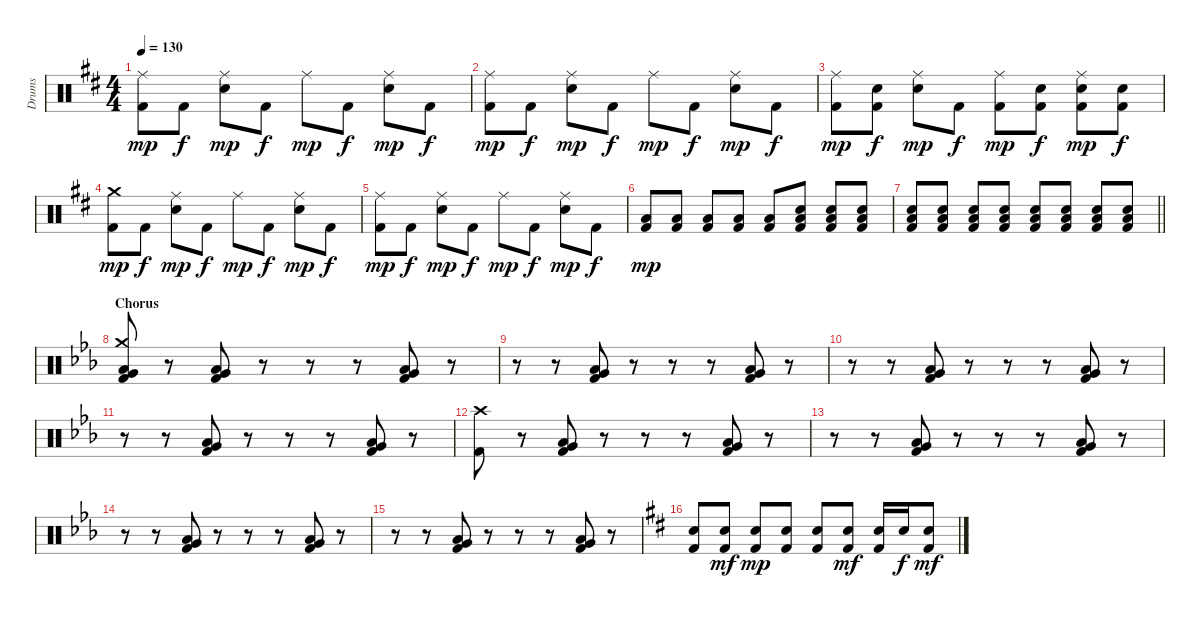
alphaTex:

\track ("Drums" "Drums") {instrument percussion}
\staff {score}
\articulation defaults
\ts (4 4)
\tempo 130
\clef neutral
\ks d
("Ride (middle)" "Kick (hit) 2").8{dy mp} "Kick (hit) 2".8{dy f} ("Ride (middle)" "Electric Snare (hit)").8{dy mp} "Kick (hit) 2".8{dy f} "Ride (middle)".8{dy mp} "Kick (hit) 2".8{dy f} ("Ride (middle)" "Electric Snare (hit)").8{dy mp} "Kick (hit) 2".8{dy f} |
("Ride (middle)" "Kick (hit) 2").8{dy mp} "Kick (hit) 2".8{dy f} ("Ride (middle)" "Electric Snare (hit)").8{dy mp} "Kick (hit) 2".8{dy f} "Ride (middle)".8{dy mp} "Kick (hit) 2".8{dy f} ("Ride (middle)" "Electric Snare (hit)").8{dy mp} "Kick (hit) 2".8{dy f} |
("Ride (middle)" "Kick (hit) 2").8{dy mp} ("Electric Snare (hit)" "Kick (hit) 2").8{dy f} ("Ride (middle)" "Electric Snare (hit)").8{dy mp} "Kick (hit) 2".8{dy f} ("Ride (middle)" "Kick (hit) 2").8{dy mp} ("Electric Snare (hit)" "Kick (hit) 2").8{dy f} ("Ride (middle)" "Electric Snare (hit)" "Kick (hit) 2").8{dy mp} ("Electric Snare (hit)" "Kick (hit) 2").8{dy f} |
("Crash medium (hit)" "Kick (hit) 2").8{dy mp} "Kick (hit) 2".8{dy f} ("Ride (middle)" "Electric Snare (hit)").8{dy mp} "Kick (hit) 2".8{dy f} "Ride (middle)".8{dy mp} "Kick (hit) 2".8{dy f} ("Ride (middle)" "Electric Snare (hit)").8{dy mp} "Kick (hit) 2".8{dy f} |
("Ride (middle)" "Kick (hit) 2").8{dy mp} "Kick (hit) 2".8{dy f} ("Ride (middle)" "Electric Snare (hit)").8{dy mp} "Kick (hit) 2".8{dy f} "Ride (middle)".8{dy mp} "Kick (hit) 2".8{dy f} ("Ride (middle)" "Electric Snare (hit)").8{dy mp} "Kick (hit) 2".8{dy f} |
("Low Tom (hit)" "Kick (hit) 2").8{dy mp} ("Low Tom (hit)" "Kick (hit) 2").8 ("Low Tom (hit)" "Kick (hit) 2").8 ("Low Tom (hit)" "Kick (hit) 2").8 ("Low Tom (hit)" "Kick (hit) 2").8 ("Electric Snare (hit)" "Low Tom (hit)" "Kick (hit) 2").8 ("Electric Snare (hit)" "Low Tom (hit)" "Kick (hit) 2").8 ("Electric Snare (hit)" "Low Tom (hit)" "Kick (hit) 2").8 |
\barLineRight lightlight
("Electric Snare (hit)" "Low Tom (hit)" "Kick (hit) 2").8 ("Electric Snare (hit)" "Low Tom (hit)" "Kick (hit) 2").8 ("Electric Snare (hit)" "Low Tom (hit)" "Kick (hit) 2").8 ("Electric Snare (hit)" "Low Tom (hit)" "Kick (hit) 2").8 ("Electric Snare (hit)" "Low Tom (hit)" "Kick (hit) 2").8 ("Electric Snare (hit)" "Low Tom (hit)" "Kick (hit) 2").8 ("Electric Snare (hit)" "Low Tom (hit)" "Kick (hit) 2").8 ("Electric Snare (hit)" "Low Tom (hit)" "Kick (hit) 2").8 |
\section ("" "Chorus")
\ks eb
("Crash medium (hit)" "Low Tom (hit)" "Very Low Tom (hit)" "Kick (hit) 2").8 r.8 ("Low Tom (hit)" "Very Low Tom (hit)" "Kick (hit) 2").8 r.8 r.8 r.8 ("Low Tom (hit)" "Very Low Tom (hit)" "Kick (hit) 2").8 r.8 |
r.8 r.8 ("Low Tom (hit)" "Very Low Tom (hit)" "Kick (hit) 2").8 r.8 r.8 r.8 ("Low Tom (hit)" "Very Low Tom (hit)" "Kick (hit) 2").8 r.8 |
r.8 r.8 ("Low Tom (hit)" "Very Low Tom (hit)" "Kick (hit) 2").8 r.8 r.8 r.8 ("Low Tom (hit)" "Very Low Tom (hit)" "Kick (hit) 2").8 r.8 |
r.8 r.8 ("Low Tom (hit)" "Very Low Tom (hit)" "Kick (hit) 2").8 r.8 r.8 r.8 ("Low Tom (hit)" "Very Low Tom (hit)" "Kick (hit) 2").8 r.8 |
("Crash high (hit)" "Kick (hit) 2").8 r.8 ("Low Tom (hit)" "Very Low Tom (hit)" "Kick (hit) 2").8 r.8 r.8 r.8 ("Low Tom (hit)" "Very Low Tom (hit)" "Kick (hit) 2").8 r.8 |
r.8 r.8 ("Low Tom (hit)" "Very Low Tom (hit)" "Kick (hit) 2").8 r.8 r.8 r.8 ("Low Tom (hit)" "Very Low Tom (hit)" "Kick (hit) 2").8 r.8 |
r.8 r.8 ("Low Tom (hit)" "Very Low Tom (hit)" "Kick (hit) 2").8 r.8 r.8 r.8 ("Low Tom (hit)" "Very Low Tom (hit)" "Kick (hit) 2").8 r.8 |
r.8 r.8 ("Low Tom (hit)" "Very Low Tom (hit)" "Kick (hit) 2").8 r.8 r.8 r.8 ("Low Tom (hit)" "Very Low Tom (hit)" "Kick (hit) 2").8 r.8 |
\ks d
("Electric Snare (hit)" "Kick (hit) 2").8 ("Electric Snare (hit)" "Kick (hit) 2").8{dy mf} ("Electric Snare (hit)" "Kick (hit) 2").8{dy mp} ("Electric Snare (hit)" "Kick (hit) 2").8 ("Electric Snare (hit)" "Kick (hit) 2").8 ("Electric Snare (hit)" "Kick (hit) 2").8{dy mf} ("Electric Snare (hit)" "Kick (hit) 2").16 "Electric Snare (hit)".16{dy f} ("Electric Snare (hit)" "Kick (hit) 2").8{dy mf}
